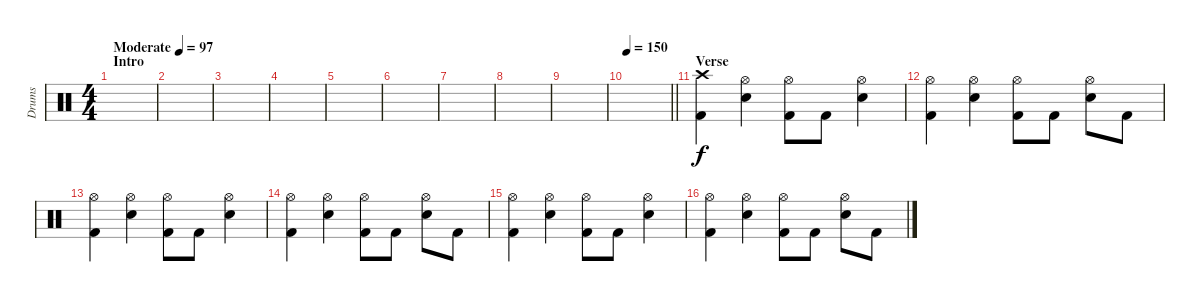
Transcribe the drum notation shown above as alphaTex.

\track ("Drums" "Drums") {instrument percussion}
\staff {score}
\articulation defaults
\ts (4 4)
\section ("" "Intro ")
\tempo (97 "Moderate")
\clef neutral
\ks c
|
|
|
|
|
|
|
|
|
\tempo 150
\barLineRight lightlight
|
\section ("" "Verse")
("Crash high (hit)" "Kick (hit) 2").4 ("Hi-Hat (open)" "Electric Snare (hit)").4 ("Hi-Hat (open)" "Kick (hit) 2").8 "Kick (hit) 2".8 ("Hi-Hat (open)" "Electric Snare (hit)").4 |
("Hi-Hat (open)" "Kick (hit) 2").4 ("Hi-Hat (open)" "Electric Snare (hit)").4 ("Hi-Hat (open)" "Kick (hit) 2").8 "Kick (hit) 2".8 ("Hi-Hat (open)" "Electric Snare (hit)").8 "Kick (hit) 2".8 |
("Hi-Hat (open)" "Kick (hit) 2").4 ("Hi-Hat (open)" "Electric Snare (hit)").4 ("Hi-Hat (open)" "Kick (hit) 2").8 "Kick (hit) 2".8 ("Hi-Hat (open)" "Electric Snare (hit)").4 |
("Hi-Hat (open)" "Kick (hit) 2").4 ("Hi-Hat (open)" "Electric Snare (hit)").4 ("Hi-Hat (open)" "Kick (hit) 2").8 "Kick (hit) 2".8 ("Hi-Hat (open)" "Electric Snare (hit)").8 "Kick (hit) 2".8 |
("Hi-Hat (open)" "Kick (hit) 2").4 ("Hi-Hat (open)" "Electric Snare (hit)").4 ("Hi-Hat (open)" "Kick (hit) 2").8 "Kick (hit) 2".8 ("Hi-Hat (open)" "Electric Snare (hit)").4 |
("Hi-Hat (open)" "Kick (hit) 2").4 ("Hi-Hat (open)" "Electric Snare (hit)").4 ("Hi-Hat (open)" "Kick (hit) 2").8 "Kick (hit) 2".8 ("Hi-Hat (open)" "Electric Snare (hit)").8 "Kick (hit) 2".8
